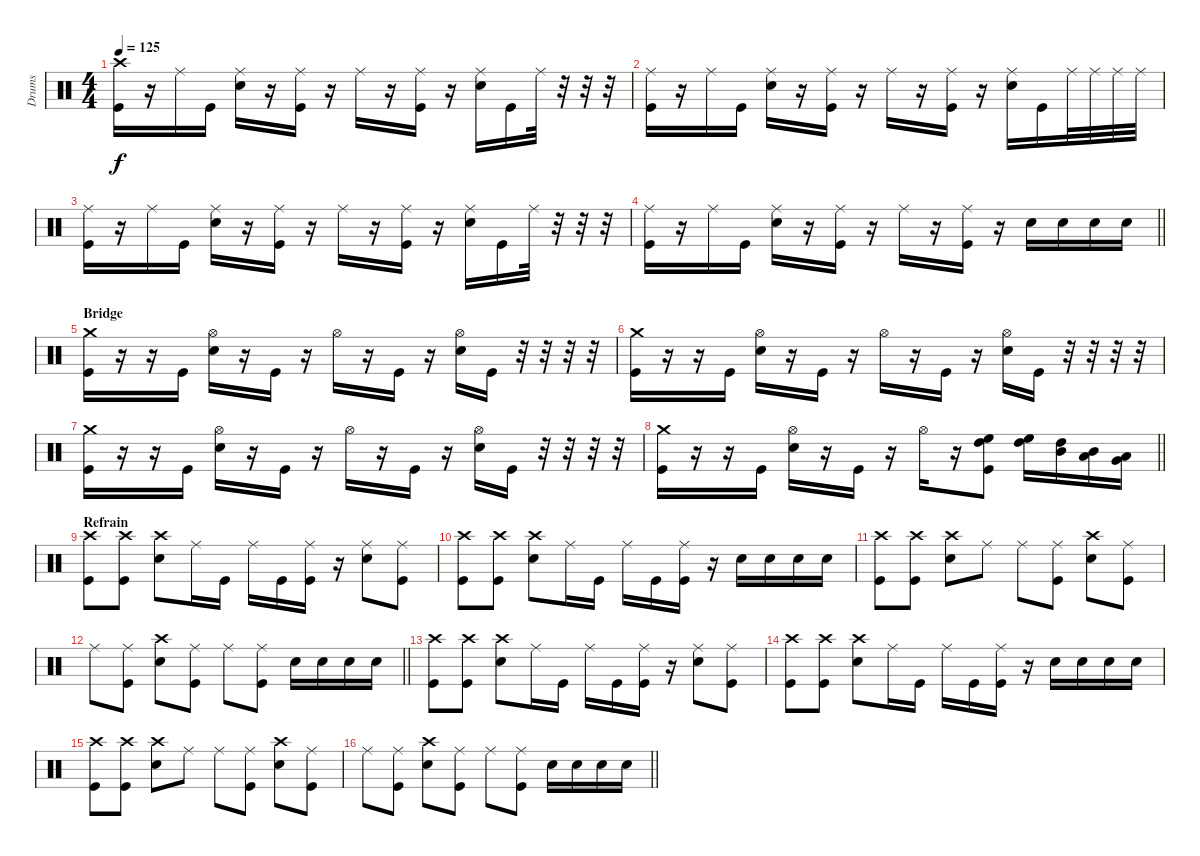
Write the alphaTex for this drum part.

\track ("Drums" "Drums") {instrument percussion}
\staff {score}
\articulation defaults
\ts (4 4)
\tempo 125
\clef neutral
\ks c
("Kick (hit)" "Crash high (hit)").16{dy f} r.16 "Ride (middle)".16 "Kick (hit)".16 ("Snare (hit) 2" "Ride (middle)").16 r.16 ("Kick (hit)" "Ride (middle)").16 r.16 "Ride (middle)".16 r.16 ("Kick (hit)" "Ride (middle)").16 r.16 ("Snare (hit) 2" "Ride (middle)").16 "Kick (hit)".16 "Ride (middle)".32 r.32 r.32 r.32 |
("Kick (hit)" "Ride (middle)").16 r.16 "Ride (middle)".16 "Kick (hit)".16 ("Snare (hit) 2" "Ride (middle)").16 r.16 ("Kick (hit)" "Ride (middle)").16 r.16 "Ride (middle)".16 r.16 ("Kick (hit)" "Ride (middle)").16 r.16 ("Snare (hit) 2" "Ride (middle)").16 "Kick (hit)".16 "Ride (middle)".32 "Ride (middle)".32 "Ride (middle)".32 "Ride (middle)".32 |
("Kick (hit)" "Ride (middle)").16 r.16 "Ride (middle)".16 "Kick (hit)".16 ("Snare (hit) 2" "Ride (middle)").16 r.16 ("Kick (hit)" "Ride (middle)").16 r.16 "Ride (middle)".16 r.16 ("Kick (hit)" "Ride (middle)").16 r.16 ("Snare (hit) 2" "Ride (middle)").16 "Kick (hit)".16 "Ride (middle)".32 r.32 r.32 r.32 |
\barLineRight lightlight
("Kick (hit)" "Ride (middle)").16 r.16 "Ride (middle)".16 "Kick (hit)".16 ("Snare (hit) 2" "Ride (middle)").16 r.16 ("Kick (hit)" "Ride (middle)").16 r.16 "Ride (middle)".16 r.16 ("Kick (hit)" "Ride (middle)").16 r.16 "Snare (hit) 2".16 "Snare (hit) 2".16 "Snare (hit) 2".16 "Snare (hit) 2".16 |
\section ("" "Bridge")
("Kick (hit)" "Crash medium (hit)").16{volume 12} r.16 r.16 "Kick (hit)".16 ("Snare (hit) 2" "Hi-Hat (open)").16 r.16 "Kick (hit)".16 r.16 "Hi-Hat (open)".16 r.16 "Kick (hit)".16 r.16 ("Snare (hit) 2" "Hi-Hat (open)").16 "Kick (hit)".16 r.32 r.32 r.32 r.32 |
("Kick (hit)" "Crash medium (hit)").16 r.16 r.16 "Kick (hit)".16 ("Snare (hit) 2" "Hi-Hat (open)").16 r.16 "Kick (hit)".16 r.16 "Hi-Hat (open)".16 r.16 "Kick (hit)".16 r.16 ("Snare (hit) 2" "Hi-Hat (open)").16 "Kick (hit)".16 r.32 r.32 r.32 r.32 |
("Kick (hit)" "Crash medium (hit)").16 r.16 r.16 "Kick (hit)".16 ("Snare (hit) 2" "Hi-Hat (open)").16 r.16 "Kick (hit)".16 r.16 "Hi-Hat (open)".16 r.16 "Kick (hit)".16 r.16 ("Snare (hit) 2" "Hi-Hat (open)").16 "Kick (hit)".16 r.32 r.32 r.32 r.32 |
\barLineRight lightlight
("Kick (hit)" "Crash medium (hit)").16 r.16 r.16 "Kick (hit)".16 ("Snare (hit) 2" "Hi-Hat (open)").16 r.16 "Kick (hit)".16 r.16 "Hi-Hat (open)".16 r.16 ("High Floor Tom (hit)" "High Tom (hit)" "Kick (hit)").8 ("High Floor Tom (hit)" "High Tom (hit)").16 ("High Tom (hit)" "Mid Tom (hit)").16 ("Mid Tom (hit)" "Low Tom (hit)").16 ("Low Tom (hit)" "Very Low Tom (hit)").16 |
\section ("" "Refrain")
("Crash high (hit)" "Kick (hit)").8 ("Crash high (hit)" "Kick (hit)").8 ("Snare (hit) 2" "Crash high (hit)").8 "Ride (middle)".16 "Kick (hit)".16 "Ride (middle)".16 "Kick (hit)".16 ("Kick (hit)" "Ride (middle)").16 r.16 ("Snare (hit) 2" "Ride (middle)").8 ("Ride (middle)" "Kick (hit)").8 |
("Crash high (hit)" "Kick (hit)").8 ("Crash high (hit)" "Kick (hit)").8 ("Snare (hit) 2" "Crash high (hit)").8 "Ride (middle)".16 "Kick (hit)".16 "Ride (middle)".16 "Kick (hit)".16 ("Kick (hit)" "Ride (middle)").16 r.16 "Snare (hit) 2".16 "Snare (hit) 2".16 "Snare (hit) 2".16 "Snare (hit) 2".16 |
("Crash high (hit)" "Kick (hit)").8 ("Crash high (hit)" "Kick (hit)").8 ("Snare (hit) 2" "Crash high (hit)").8 "Ride (middle)".8 "Ride (middle)".8 ("Ride (middle)" "Kick (hit)").8 ("Snare (hit) 2" "Crash high (hit)").8 ("Ride (middle)" "Kick (hit)").8 |
\barLineRight lightlight "Ride (middle)".8
("Ride (middle)" "Kick (hit)").8 ("Snare (hit) 2" "Crash high (hit)").8 ("Kick (hit)" "Ride (middle)").8 "Ride (middle)".8 ("Ride (middle)" "Kick (hit)").8 "Snare (hit) 2".16 "Snare (hit) 2".16 "Snare (hit) 2".16 "Snare (hit) 2".16 |
("Crash high (hit)" "Kick (hit)").8 ("Crash high (hit)" "Kick (hit)").8 ("Snare (hit) 2" "Crash high (hit)").8 "Ride (middle)".16 "Kick (hit)".16 "Ride (middle)".16 "Kick (hit)".16 ("Kick (hit)" "Ride (middle)").16 r.16 ("Snare (hit) 2" "Ride (middle)").8 ("Ride (middle)" "Kick (hit)").8 |
("Crash high (hit)" "Kick (hit)").8 ("Crash high (hit)" "Kick (hit)").8 ("Snare (hit) 2" "Crash high (hit)").8 "Ride (middle)".16 "Kick (hit)".16 "Ride (middle)".16 "Kick (hit)".16 ("Kick (hit)" "Ride (middle)").16 r.16 "Snare (hit) 2".16 "Snare (hit) 2".16 "Snare (hit) 2".16 "Snare (hit) 2".16 |
("Crash high (hit)" "Kick (hit)").8 ("Crash high (hit)" "Kick (hit)").8 ("Snare (hit) 2" "Crash high (hit)").8 "Ride (middle)".8 "Ride (middle)".8 ("Ride (middle)" "Kick (hit)").8 ("Snare (hit) 2" "Crash high (hit)").8 ("Ride (middle)" "Kick (hit)").8 |
\barLineRight lightlight "Ride (middle)".8
("Ride (middle)" "Kick (hit)").8 ("Snare (hit) 2" "Crash high (hit)").8 ("Kick (hit)" "Ride (middle)").8 "Ride (middle)".8 ("Ride (middle)" "Kick (hit)").8 "Snare (hit) 2".16 "Snare (hit) 2".16 "Snare (hit) 2".16 "Snare (hit) 2".16
